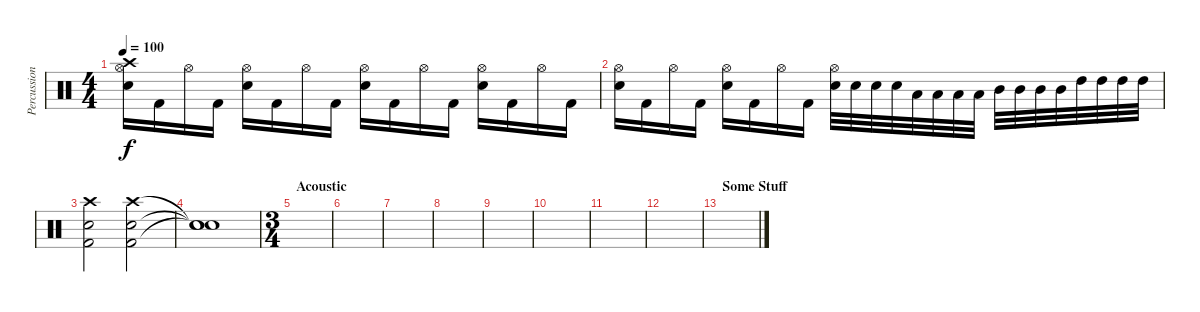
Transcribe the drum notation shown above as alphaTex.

\track ("Percussion" "Percussion") {instrument percussion}
\staff {score}
\articulation defaults
\ts (4 4)
\tempo 100
\clef neutral
\ks c
("Hi-Hat (open)" "Crash high (hit)" "Snare (hit) 2").16{dy f} "Kick (hit) 2".16 "Hi-Hat (open)".16 "Kick (hit) 2".16 ("Hi-Hat (open)" "Snare (hit) 2").16 "Kick (hit) 2".16 "Hi-Hat (open)".16 "Kick (hit) 2".16 ("Hi-Hat (open)" "Snare (hit) 2").16 "Kick (hit) 2".16 "Hi-Hat (open)".16 "Kick (hit) 2".16 ("Hi-Hat (open)" "Snare (hit) 2").16 "Kick (hit) 2".16 "Hi-Hat (open)".16 "Kick (hit) 2".16 |
("Hi-Hat (open)" "Snare (hit) 2").16 "Kick (hit) 2".16 "Hi-Hat (open)".16 "Kick (hit) 2".16 ("Hi-Hat (open)" "Snare (hit) 2").16 "Kick (hit) 2".16 "Hi-Hat (open)".16 "Kick (hit) 2".16 ("Hi-Hat (open)" "Snare (hit) 2").32 "Snare (hit) 2".32 "Snare (hit) 2".32 "Snare (hit) 2".32 "Low Tom (hit)".32 "Low Tom (hit)".32 "Low Tom (hit)".32 "Low Tom (hit)".32 "Mid Tom (hit)".32 "Mid Tom (hit)".32 "Mid Tom (hit)".32 "Mid Tom (hit)".32 "High Tom (hit)".32 "High Tom (hit)".32 "High Tom (hit)".32 "High Tom (hit)".32 |
("Crash high (hit)" "Snare (hit) 2" "Kick (hit) 2").2 ("Crash high (hit)" "Snare (hit) 2" "Kick (hit) 2").2 |
("Snare (hit)"{t} "Snare (hit)"{t} "Snare (hit)"{t}).1 |
\ts (3 4)
\section ("" "Acoustic")
|
|
|
|
|
|
|
|
\section ("" "Some Stuff")
